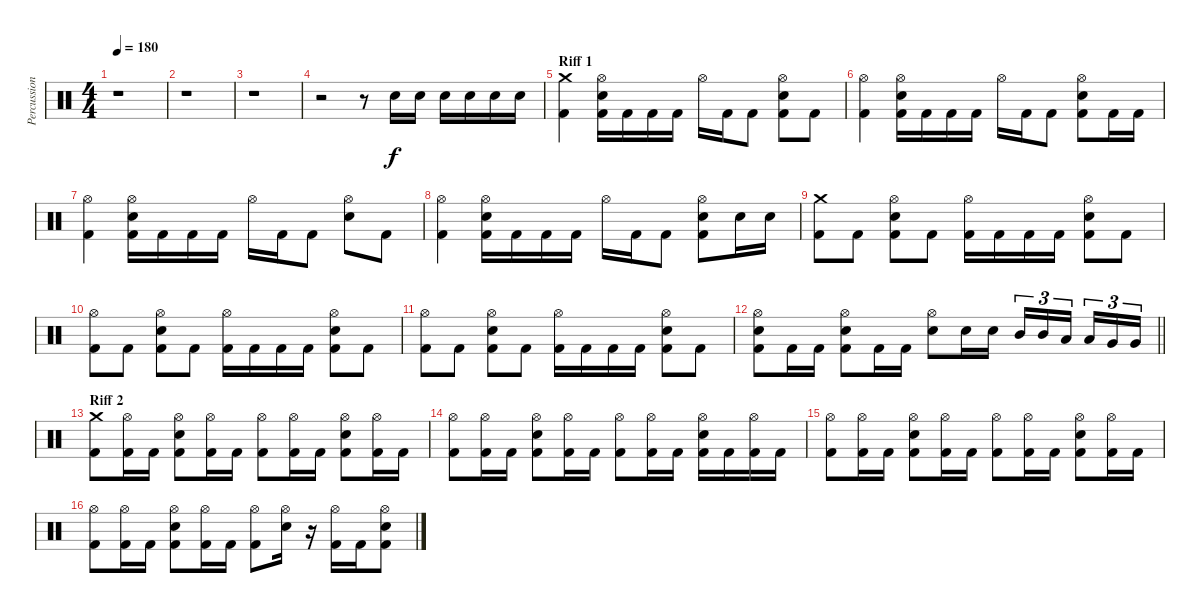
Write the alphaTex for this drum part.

\track ("Percussion" "Percussion") {instrument percussion}
\staff {score}
\articulation defaults
\ts (4 4)
\tempo 180
\clef neutral
\ks c
r.1{dy f} |
r.1 |
r.1 |
r.2 r.8 "Snare (hit) 2".16 "Snare (hit) 2".16 "Snare (hit) 2".16 "Snare (hit) 2".16 "Snare (hit) 2".16 "Snare (hit) 2".16 |
\section ("" "Riff 1")
("Crash medium (hit)" "Kick (hit) 2").4 ("Kick (hit) 2" "Hi-Hat (open)" "Snare (hit) 2").16 "Kick (hit) 2".16 "Kick (hit) 2".16 "Kick (hit) 2".16 "Hi-Hat (open)".16 "Kick (hit) 2".16 "Kick (hit) 2".8 ("Kick (hit) 2" "Hi-Hat (open)" "Snare (hit) 2").8 "Kick (hit) 2".8 |
("Hi-Hat (open)" "Kick (hit) 2").4 ("Kick (hit) 2" "Hi-Hat (open)" "Snare (hit) 2").16 "Kick (hit) 2".16 "Kick (hit) 2".16 "Kick (hit) 2".16 "Hi-Hat (open)".16 "Kick (hit) 2".16 "Kick (hit) 2".8 ("Kick (hit) 2" "Hi-Hat (open)" "Snare (hit) 2").8 "Kick (hit) 2".16 "Kick (hit) 2".16 |
("Hi-Hat (open)" "Kick (hit) 2").4 ("Kick (hit) 2" "Hi-Hat (open)" "Snare (hit) 2").16 "Kick (hit) 2".16 "Kick (hit) 2".16 "Kick (hit) 2".16 "Hi-Hat (open)".16 "Kick (hit) 2".16 "Kick (hit) 2".8 ("Hi-Hat (open)" "Snare (hit) 2").8 "Kick (hit) 2".8 |
("Hi-Hat (open)" "Kick (hit) 2").4 ("Kick (hit) 2" "Hi-Hat (open)" "Snare (hit) 2").16 "Kick (hit) 2".16 "Kick (hit) 2".16 "Kick (hit) 2".16 "Hi-Hat (open)".16 "Kick (hit) 2".16 "Kick (hit) 2".8 ("Kick (hit) 2" "Hi-Hat (open)" "Snare (hit) 2").8 "Snare (hit) 2".16 "Snare (hit) 2".16 |
("Crash medium (hit)" "Kick (hit) 2").8 "Kick (hit) 2".8 ("Kick (hit) 2" "Hi-Hat (open)" "Snare (hit) 2").8 "Kick (hit) 2".8 ("Hi-Hat (open)" "Kick (hit) 2").16 "Kick (hit) 2".16 "Kick (hit) 2".16 "Kick (hit) 2".16 ("Kick (hit) 2" "Hi-Hat (open)" "Snare (hit) 2").8 "Kick (hit) 2".8 |
("Hi-Hat (open)" "Kick (hit) 2").8 "Kick (hit) 2".8 ("Kick (hit) 2" "Hi-Hat (open)" "Snare (hit) 2").8 "Kick (hit) 2".8 ("Hi-Hat (open)" "Kick (hit) 2").16 "Kick (hit) 2".16 "Kick (hit) 2".16 "Kick (hit) 2".16 ("Kick (hit) 2" "Hi-Hat (open)" "Snare (hit) 2").8 "Kick (hit) 2".8 |
("Hi-Hat (open)" "Kick (hit) 2").8 "Kick (hit) 2".8 ("Kick (hit) 2" "Hi-Hat (open)" "Snare (hit) 2").8 "Kick (hit) 2".8 ("Hi-Hat (open)" "Kick (hit) 2").16 "Kick (hit) 2".16 "Kick (hit) 2".16 "Kick (hit) 2".16 ("Kick (hit) 2" "Hi-Hat (open)" "Snare (hit) 2").8 "Kick (hit) 2".8 |
\barLineRight lightlight
("Kick (hit) 2" "Hi-Hat (open)" "Snare (hit) 2").8 "Kick (hit) 2".16 "Kick (hit) 2".16 ("Kick (hit) 2" "Hi-Hat (open)" "Snare (hit) 2").8 "Kick (hit) 2".16 "Kick (hit) 2".16 ("Hi-Hat (open)" "Snare (hit) 2").8 "Snare (hit) 2".16 "Snare (hit) 2".16 "Mid Tom (hit)".16{tu (3 2)} "Mid Tom (hit)".16{tu (3 2)} "Low Tom (hit)".16{tu (3 2)} "Low Tom (hit)".16{tu (3 2)} "Very Low Tom (hit)".16{tu (3 2)} "Very Low Tom (hit)".16{tu (3 2)} |
\section ("" "Riff 2")
("Crash medium (hit)" "Kick (hit) 2").8 ("Hi-Hat (open)" "Kick (hit) 2").16 "Kick (hit) 2".16 ("Kick (hit) 2" "Hi-Hat (open)" "Snare (hit) 2").8 ("Hi-Hat (open)" "Kick (hit) 2").16 "Kick (hit) 2".16 ("Hi-Hat (open)" "Kick (hit) 2").8 ("Hi-Hat (open)" "Kick (hit) 2").16 "Kick (hit) 2".16 ("Kick (hit) 2" "Hi-Hat (open)" "Snare (hit) 2").8 ("Hi-Hat (open)" "Kick (hit) 2").16 "Kick (hit) 2".16 |
("Hi-Hat (open)" "Kick (hit) 2").8 ("Hi-Hat (open)" "Kick (hit) 2").16 "Kick (hit) 2".16 ("Kick (hit) 2" "Hi-Hat (open)" "Snare (hit) 2").8 ("Hi-Hat (open)" "Kick (hit) 2").16 "Kick (hit) 2".16 ("Hi-Hat (open)" "Kick (hit) 2").8 ("Hi-Hat (open)" "Kick (hit) 2").16 "Kick (hit) 2".16 ("Kick (hit) 2" "Hi-Hat (open)" "Snare (hit) 2").16 "Kick (hit) 2".16 ("Hi-Hat (open)" "Kick (hit) 2").16 "Kick (hit) 2".16 |
("Hi-Hat (open)" "Kick (hit) 2").8 ("Hi-Hat (open)" "Kick (hit) 2").16 "Kick (hit) 2".16 ("Kick (hit) 2" "Hi-Hat (open)" "Snare (hit) 2").8 ("Hi-Hat (open)" "Kick (hit) 2").16 "Kick (hit) 2".16 ("Hi-Hat (open)" "Kick (hit) 2").8 ("Hi-Hat (open)" "Kick (hit) 2").16 "Kick (hit) 2".16 ("Kick (hit) 2" "Hi-Hat (open)" "Snare (hit) 2").8 ("Hi-Hat (open)" "Kick (hit) 2").16 "Kick (hit) 2".16 |
("Hi-Hat (open)" "Kick (hit) 2").8 ("Hi-Hat (open)" "Kick (hit) 2").16 "Kick (hit) 2".16 ("Kick (hit) 2" "Hi-Hat (open)" "Snare (hit) 2").8 ("Hi-Hat (open)" "Kick (hit) 2").16 "Kick (hit) 2".16 ("Hi-Hat (open)" "Kick (hit) 2").8 ("Hi-Hat (open)" "Snare (hit) 2").16 r.16 ("Hi-Hat (open)" "Kick (hit) 2").16 "Kick (hit) 2".16 ("Kick (hit) 2" "Hi-Hat (open)" "Snare (hit) 2").8
